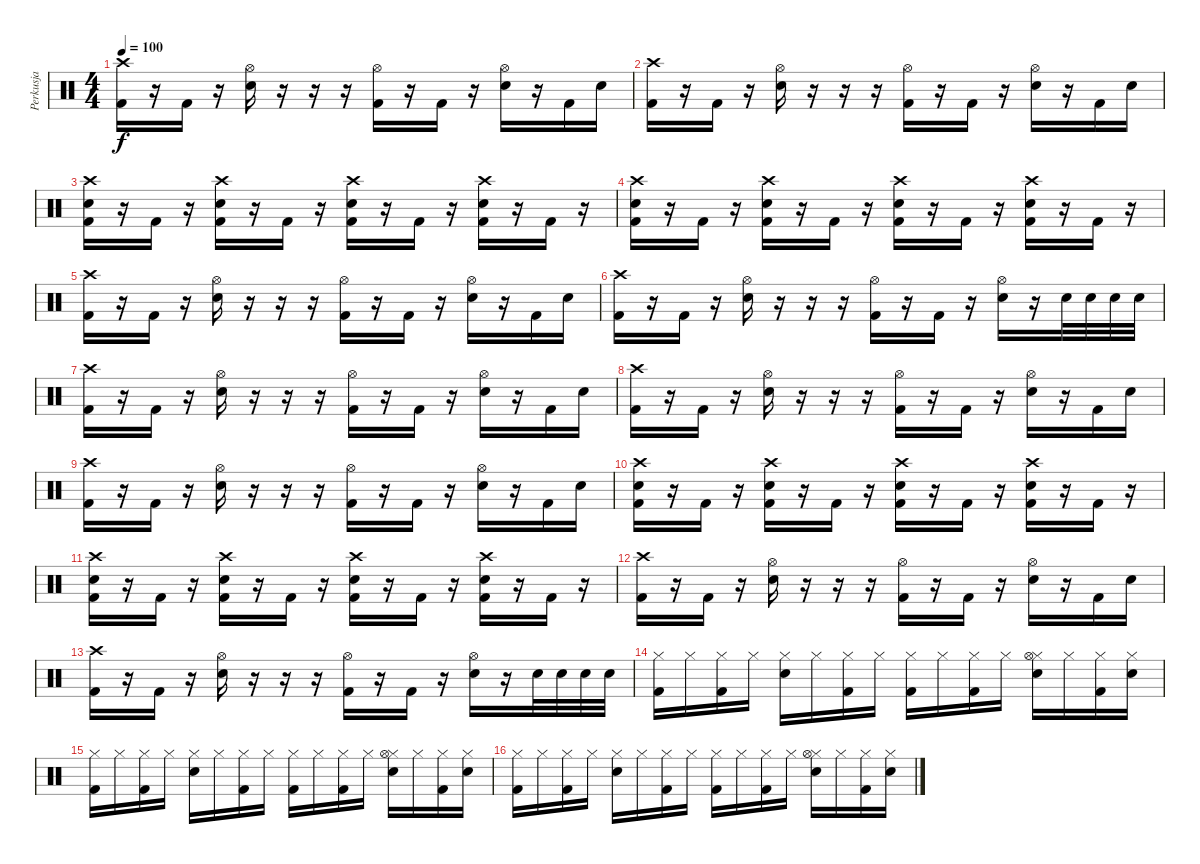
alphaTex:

\track ("Perkusja" "Perkusja") {instrument percussion}
\staff {score}
\articulation defaults
\ts (4 4)
\tempo 100
\clef neutral
\ks c
("Crash high (hit)" "Kick (hit) 2").16{dy f} r.16 "Kick (hit) 2".16 r.16 ("Hi-Hat (open)" "Electric Snare (hit)").16 r.16 r.16 r.16 ("Hi-Hat (open)" "Kick (hit) 2").16 r.16 "Kick (hit) 2".16 r.16 ("Hi-Hat (open)" "Electric Snare (hit)").16 r.16 "Kick (hit) 2".16 "Electric Snare (hit)".16 |
("Crash high (hit)" "Kick (hit) 2").16 r.16 "Kick (hit) 2".16 r.16 ("Hi-Hat (open)" "Electric Snare (hit)").16 r.16 r.16 r.16 ("Hi-Hat (open)" "Kick (hit) 2").16 r.16 "Kick (hit) 2".16 r.16 ("Hi-Hat (open)" "Electric Snare (hit)").16 r.16 "Kick (hit) 2".16 "Electric Snare (hit)".16 |
("Crash high (hit)" "Electric Snare (hit)" "Kick (hit) 2").16 r.16 "Kick (hit) 2".16 r.16 ("Crash high (hit)" "Electric Snare (hit)" "Kick (hit) 2").16 r.16 "Kick (hit) 2".16 r.16 ("Crash high (hit)" "Electric Snare (hit)" "Kick (hit) 2").16 r.16 "Kick (hit) 2".16 r.16 ("Crash high (hit)" "Electric Snare (hit)" "Kick (hit) 2").16 r.16 "Kick (hit) 2".16 r.16 |
("Crash high (hit)" "Electric Snare (hit)" "Kick (hit) 2").16 r.16 "Kick (hit) 2".16 r.16 ("Crash high (hit)" "Electric Snare (hit)" "Kick (hit) 2").16 r.16 "Kick (hit) 2".16 r.16 ("Crash high (hit)" "Electric Snare (hit)" "Kick (hit) 2").16 r.16 "Kick (hit) 2".16 r.16 ("Crash high (hit)" "Electric Snare (hit)" "Kick (hit) 2").16 r.16 "Kick (hit) 2".16 r.16 |
("Crash high (hit)" "Kick (hit) 2").16 r.16 "Kick (hit) 2".16 r.16 ("Hi-Hat (open)" "Electric Snare (hit)").16 r.16 r.16 r.16 ("Hi-Hat (open)" "Kick (hit) 2").16 r.16 "Kick (hit) 2".16 r.16 ("Hi-Hat (open)" "Electric Snare (hit)").16 r.16 "Kick (hit) 2".16 "Electric Snare (hit)".16 |
("Crash high (hit)" "Kick (hit) 2").16 r.16 "Kick (hit) 2".16 r.16 ("Hi-Hat (open)" "Electric Snare (hit)").16 r.16 r.16 r.16 ("Hi-Hat (open)" "Kick (hit) 2").16 r.16 "Kick (hit) 2".16 r.16 ("Hi-Hat (open)" "Electric Snare (hit)").16 r.16 "Electric Snare (hit)".32 "Electric Snare (hit)".32 "Electric Snare (hit)".32 "Electric Snare (hit)".32 |
("Crash high (hit)" "Kick (hit) 2").16 r.16 "Kick (hit) 2".16 r.16 ("Hi-Hat (open)" "Electric Snare (hit)").16 r.16 r.16 r.16 ("Hi-Hat (open)" "Kick (hit) 2").16 r.16 "Kick (hit) 2".16 r.16 ("Hi-Hat (open)" "Electric Snare (hit)").16 r.16 "Kick (hit) 2".16 "Electric Snare (hit)".16 |
("Crash high (hit)" "Kick (hit) 2").16 r.16 "Kick (hit) 2".16 r.16 ("Hi-Hat (open)" "Electric Snare (hit)").16 r.16 r.16 r.16 ("Hi-Hat (open)" "Kick (hit) 2").16 r.16 "Kick (hit) 2".16 r.16 ("Hi-Hat (open)" "Electric Snare (hit)").16 r.16 "Kick (hit) 2".16 "Electric Snare (hit)".16 |
("Crash high (hit)" "Kick (hit) 2").16 r.16 "Kick (hit) 2".16 r.16 ("Hi-Hat (open)" "Electric Snare (hit)").16 r.16 r.16 r.16 ("Hi-Hat (open)" "Kick (hit) 2").16 r.16 "Kick (hit) 2".16 r.16 ("Hi-Hat (open)" "Electric Snare (hit)").16 r.16 "Kick (hit) 2".16 "Electric Snare (hit)".16 |
("Crash high (hit)" "Electric Snare (hit)" "Kick (hit) 2").16 r.16 "Kick (hit) 2".16 r.16 ("Crash high (hit)" "Electric Snare (hit)" "Kick (hit) 2").16 r.16 "Kick (hit) 2".16 r.16 ("Crash high (hit)" "Electric Snare (hit)" "Kick (hit) 2").16 r.16 "Kick (hit) 2".16 r.16 ("Crash high (hit)" "Electric Snare (hit)" "Kick (hit) 2").16 r.16 "Kick (hit) 2".16 r.16 |
("Crash high (hit)" "Electric Snare (hit)" "Kick (hit) 2").16 r.16 "Kick (hit) 2".16 r.16 ("Crash high (hit)" "Electric Snare (hit)" "Kick (hit) 2").16 r.16 "Kick (hit) 2".16 r.16 ("Crash high (hit)" "Electric Snare (hit)" "Kick (hit) 2").16 r.16 "Kick (hit) 2".16 r.16 ("Crash high (hit)" "Electric Snare (hit)" "Kick (hit) 2").16 r.16 "Kick (hit) 2".16 r.16 |
("Crash high (hit)" "Kick (hit) 2").16 r.16 "Kick (hit) 2".16 r.16 ("Hi-Hat (open)" "Electric Snare (hit)").16 r.16 r.16 r.16 ("Hi-Hat (open)" "Kick (hit) 2").16 r.16 "Kick (hit) 2".16 r.16 ("Hi-Hat (open)" "Electric Snare (hit)").16 r.16 "Kick (hit) 2".16 "Electric Snare (hit)".16 |
("Crash high (hit)" "Kick (hit) 2").16 r.16 "Kick (hit) 2".16 r.16 ("Hi-Hat (open)" "Electric Snare (hit)").16 r.16 r.16 r.16 ("Hi-Hat (open)" "Kick (hit) 2").16 r.16 "Kick (hit) 2".16 r.16 ("Hi-Hat (open)" "Electric Snare (hit)").16 r.16 "Electric Snare (hit)".32 "Electric Snare (hit)".32 "Electric Snare (hit)".32 "Electric Snare (hit)".32 |
("Hi-Hat (closed)" "Kick (hit) 2").16 "Hi-Hat (closed)".16 ("Hi-Hat (closed)" "Kick (hit) 2").16 "Hi-Hat (closed)".16 ("Hi-Hat (closed)" "Electric Snare (hit)").16 "Hi-Hat (closed)".16 ("Hi-Hat (closed)" "Kick (hit) 2").16 "Hi-Hat (closed)".16 ("Hi-Hat (closed)" "Kick (hit) 2").16 "Hi-Hat (closed)".16 ("Hi-Hat (closed)" "Kick (hit) 2").16 "Hi-Hat (closed)".16 ("Hi-Hat (closed)" "Hi-Hat (open)" "Electric Snare (hit)").16 "Hi-Hat (closed)".16 ("Hi-Hat (closed)" "Kick (hit) 2").16 ("Hi-Hat (closed)" "Electric Snare (hit)").16 |
("Hi-Hat (closed)" "Kick (hit) 2").16 "Hi-Hat (closed)".16 ("Hi-Hat (closed)" "Kick (hit) 2").16 "Hi-Hat (closed)".16 ("Hi-Hat (closed)" "Electric Snare (hit)").16 "Hi-Hat (closed)".16 ("Hi-Hat (closed)" "Kick (hit) 2").16 "Hi-Hat (closed)".16 ("Hi-Hat (closed)" "Kick (hit) 2").16 "Hi-Hat (closed)".16 ("Hi-Hat (closed)" "Kick (hit) 2").16 "Hi-Hat (closed)".16 ("Hi-Hat (closed)" "Hi-Hat (open)" "Electric Snare (hit)").16 "Hi-Hat (closed)".16 ("Hi-Hat (closed)" "Kick (hit) 2").16 ("Hi-Hat (closed)" "Electric Snare (hit)").16 |
("Hi-Hat (closed)" "Kick (hit) 2").16 "Hi-Hat (closed)".16 ("Hi-Hat (closed)" "Kick (hit) 2").16 "Hi-Hat (closed)".16 ("Hi-Hat (closed)" "Electric Snare (hit)").16 "Hi-Hat (closed)".16 ("Hi-Hat (closed)" "Kick (hit) 2").16 "Hi-Hat (closed)".16 ("Hi-Hat (closed)" "Kick (hit) 2").16 "Hi-Hat (closed)".16 ("Hi-Hat (closed)" "Kick (hit) 2").16 "Hi-Hat (closed)".16 ("Hi-Hat (closed)" "Hi-Hat (open)" "Electric Snare (hit)").16 "Hi-Hat (closed)".16 ("Hi-Hat (closed)" "Kick (hit) 2").16 ("Hi-Hat (closed)" "Electric Snare (hit)").16
